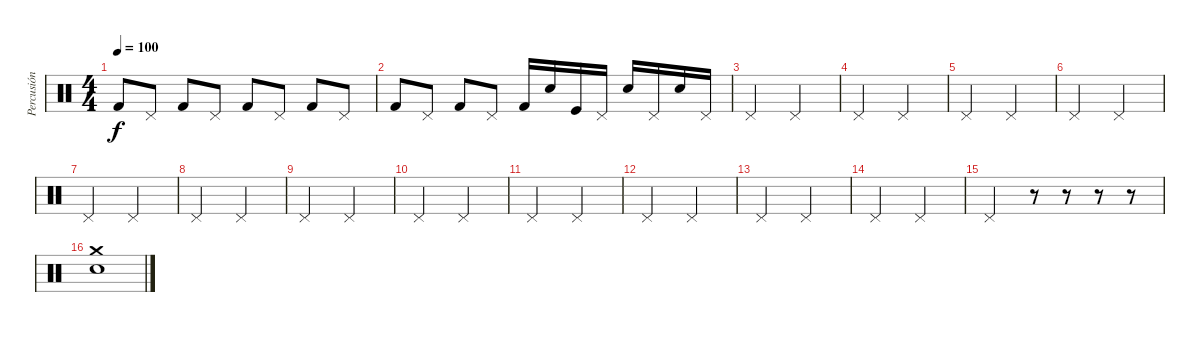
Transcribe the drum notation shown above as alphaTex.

\track ("Percusión" "Percusión") {instrument percussion}
\staff {score}
\articulation defaults
\ts (4 4)
\tempo 100
\clef neutral
\ks c "Kick (hit) 2".8{dy f} "Pedal Hi-Hat (hit)".8 "Kick (hit) 2".8 "Pedal Hi-Hat (hit)".8 "Kick (hit) 2".8 "Pedal Hi-Hat (hit)".8 "Kick (hit) 2".8 "Pedal Hi-Hat (hit)".8
|
"Kick (hit) 2".8 "Pedal Hi-Hat (hit)".8 "Kick (hit) 2".8 "Pedal Hi-Hat (hit)".8 "Kick (hit) 2".16 "Snare (hit) 2".16 "Kick (hit)".16 "Pedal Hi-Hat (hit)".16 "Snare (hit) 2".16 "Pedal Hi-Hat (hit)".16 "Snare (hit) 2".16 "Pedal Hi-Hat (hit)".16 |
"Pedal Hi-Hat (hit)".2 "Pedal Hi-Hat (hit)".2 |
"Pedal Hi-Hat (hit)".2 "Pedal Hi-Hat (hit)".2 |
"Pedal Hi-Hat (hit)".2 "Pedal Hi-Hat (hit)".2 |
"Pedal Hi-Hat (hit)".2 "Pedal Hi-Hat (hit)".2 |
"Pedal Hi-Hat (hit)".2 "Pedal Hi-Hat (hit)".2 |
"Pedal Hi-Hat (hit)".2 "Pedal Hi-Hat (hit)".2 |
"Pedal Hi-Hat (hit)".2 "Pedal Hi-Hat (hit)".2 |
"Pedal Hi-Hat (hit)".2 "Pedal Hi-Hat (hit)".2 |
"Pedal Hi-Hat (hit)".2 "Pedal Hi-Hat (hit)".2 |
"Pedal Hi-Hat (hit)".2 "Pedal Hi-Hat (hit)".2 |
"Pedal Hi-Hat (hit)".2 "Pedal Hi-Hat (hit)".2 |
"Pedal Hi-Hat (hit)".2 "Pedal Hi-Hat (hit)".2 |
"Pedal Hi-Hat (hit)".2 r.8 r.8 r.8 r.8 |
("Snare (hit) 2" "Crash medium (hit)").1
